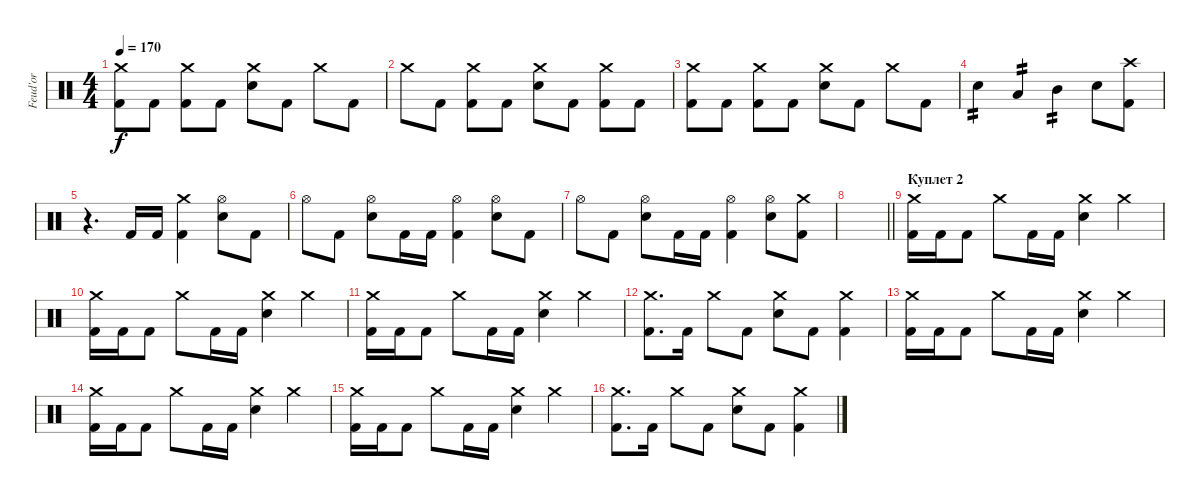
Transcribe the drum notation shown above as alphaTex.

\track ("Feud'or" "Feud'or") {instrument percussion}
\staff {score}
\articulation defaults
\ts (4 4)
\tempo 170
\clef neutral
\ks c
("Crash medium (hit)" "Kick (hit) 2").8{dy f} "Kick (hit) 2".8 ("Crash medium (hit)" "Kick (hit) 2").8 "Kick (hit) 2".8 ("Crash medium (hit)" "Electric Snare (hit)").8 "Kick (hit) 2".8 "Crash medium (hit)".8 "Kick (hit) 2".8 |
"Crash medium (hit)".8 "Kick (hit) 2".8 ("Crash medium (hit)" "Kick (hit) 2").8 "Kick (hit) 2".8 ("Crash medium (hit)" "Electric Snare (hit)").8 "Kick (hit) 2".8 ("Crash medium (hit)" "Kick (hit) 2").8 "Kick (hit) 2".8 |
("Crash medium (hit)" "Kick (hit) 2").8 "Kick (hit) 2".8 ("Crash medium (hit)" "Kick (hit) 2").8 "Kick (hit) 2".8 ("Crash medium (hit)" "Electric Snare (hit)").8 "Kick (hit) 2".8 "Crash medium (hit)".8 "Kick (hit) 2".8 |
"Electric Snare (hit)".4{tp 2} "Low Tom (hit)".4{tp 2} "Mid Tom (hit)".4{tp 2} "Electric Snare (hit)".8 ("Crash high (hit)" "Kick (hit) 2").8 |
r.4{d} "Kick (hit) 2".16 "Kick (hit) 2".16 ("Crash medium (hit)" "Kick (hit) 2").4 ("Hi-Hat (open)" "Electric Snare (hit)").8 "Kick (hit) 2".8 |
"Hi-Hat (open)".8 "Kick (hit) 2".8 ("Hi-Hat (open)" "Electric Snare (hit)").8 "Kick (hit) 2".16 "Kick (hit) 2".16 ("Hi-Hat (open)" "Kick (hit) 2").4 ("Hi-Hat (open)" "Electric Snare (hit)").8 "Kick (hit) 2".8 |
"Hi-Hat (open)".8 "Kick (hit) 2".8 ("Hi-Hat (open)" "Electric Snare (hit)").8 "Kick (hit) 2".16 "Kick (hit) 2".16 ("Hi-Hat (open)" "Kick (hit) 2").4 ("Hi-Hat (open)" "Electric Snare (hit)").8 ("Crash medium (hit)" "Kick (hit) 2").8 |
\barLineRight lightlight
|
\section ("" "Куплет 2")
("Crash medium (hit)" "Kick (hit) 2").16 "Kick (hit) 2".16 "Kick (hit) 2".8 "Crash medium (hit)".8 "Kick (hit) 2".16 "Kick (hit) 2".16 ("Crash medium (hit)" "Electric Snare (hit)").4 "Crash medium (hit)".4 |
("Crash medium (hit)" "Kick (hit) 2").16 "Kick (hit) 2".16 "Kick (hit) 2".8 "Crash medium (hit)".8 "Kick (hit) 2".16 "Kick (hit) 2".16 ("Crash medium (hit)" "Electric Snare (hit)").4 "Crash medium (hit)".4 |
("Crash medium (hit)" "Kick (hit) 2").16 "Kick (hit) 2".16 "Kick (hit) 2".8 "Crash medium (hit)".8 "Kick (hit) 2".16 "Kick (hit) 2".16 ("Crash medium (hit)" "Electric Snare (hit)").4 "Crash medium (hit)".4 |
("Crash medium (hit)" "Kick (hit) 2").8{d} "Kick (hit) 2".16 "Crash medium (hit)".8 "Kick (hit) 2".8 ("Crash medium (hit)" "Electric Snare (hit)").8 "Kick (hit) 2".8 ("Crash medium (hit)" "Kick (hit) 2").4 |
("Crash medium (hit)" "Kick (hit) 2").16 "Kick (hit) 2".16 "Kick (hit) 2".8 "Crash medium (hit)".8 "Kick (hit) 2".16 "Kick (hit) 2".16 ("Crash medium (hit)" "Electric Snare (hit)").4 "Crash medium (hit)".4 |
("Crash medium (hit)" "Kick (hit) 2").16 "Kick (hit) 2".16 "Kick (hit) 2".8 "Crash medium (hit)".8 "Kick (hit) 2".16 "Kick (hit) 2".16 ("Crash medium (hit)" "Electric Snare (hit)").4 "Crash medium (hit)".4 |
("Crash medium (hit)" "Kick (hit) 2").16 "Kick (hit) 2".16 "Kick (hit) 2".8 "Crash medium (hit)".8 "Kick (hit) 2".16 "Kick (hit) 2".16 ("Crash medium (hit)" "Electric Snare (hit)").4 "Crash medium (hit)".4 |
("Crash medium (hit)" "Kick (hit) 2").8{d} "Kick (hit) 2".16 "Crash medium (hit)".8 "Kick (hit) 2".8 ("Crash medium (hit)" "Electric Snare (hit)").8 "Kick (hit) 2".8 ("Crash medium (hit)" "Kick (hit) 2").4
